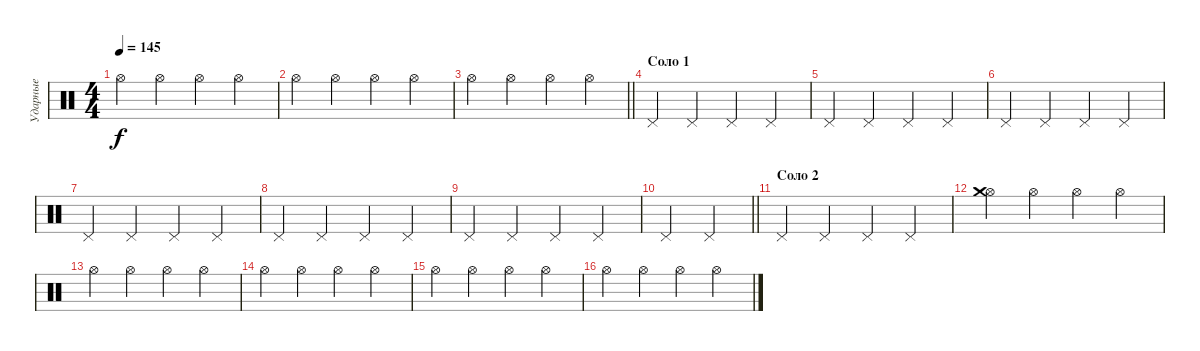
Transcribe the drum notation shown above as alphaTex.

\track ("Ударные" "Ударные") {instrument percussion}
\staff {score}
\articulation defaults
\ts (4 4)
\tempo 145
\clef neutral
\ks c "Hi-Hat (open)".4{dy f} "Hi-Hat (open)".4 "Hi-Hat (open)".4 "Hi-Hat (open)".4
|
"Hi-Hat (open)".4 "Hi-Hat (open)".4 "Hi-Hat (open)".4 "Hi-Hat (open)".4 |
\barLineRight lightlight "Hi-Hat (open)".4 "Hi-Hat (open)".4 "Hi-Hat (open)".4 "Hi-Hat (open)".4
|
\section ("" "Соло 1")
"Pedal Hi-Hat (hit)".4 "Pedal Hi-Hat (hit)".4 "Pedal Hi-Hat (hit)".4 "Pedal Hi-Hat (hit)".4 |
"Pedal Hi-Hat (hit)".4 "Pedal Hi-Hat (hit)".4 "Pedal Hi-Hat (hit)".4 "Pedal Hi-Hat (hit)".4 |
"Pedal Hi-Hat (hit)".4 "Pedal Hi-Hat (hit)".4 "Pedal Hi-Hat (hit)".4 "Pedal Hi-Hat (hit)".4 |
"Pedal Hi-Hat (hit)".4 "Pedal Hi-Hat (hit)".4 "Pedal Hi-Hat (hit)".4 "Pedal Hi-Hat (hit)".4 |
"Pedal Hi-Hat (hit)".4 "Pedal Hi-Hat (hit)".4 "Pedal Hi-Hat (hit)".4 "Pedal Hi-Hat (hit)".4 |
"Pedal Hi-Hat (hit)".4 "Pedal Hi-Hat (hit)".4 "Pedal Hi-Hat (hit)".4 "Pedal Hi-Hat (hit)".4 |
\barLineRight lightlight "Pedal Hi-Hat (hit)".4 "Pedal Hi-Hat (hit)".4
|
\section ("" "Соло 2")
"Pedal Hi-Hat (hit)".4 "Pedal Hi-Hat (hit)".4 "Pedal Hi-Hat (hit)".4 "Pedal Hi-Hat (hit)".4 |
("Hi-Hat (open)" "Crash medium (hit)").4 "Hi-Hat (open)".4 "Hi-Hat (open)".4 "Hi-Hat (open)".4 |
"Hi-Hat (open)".4 "Hi-Hat (open)".4 "Hi-Hat (open)".4 "Hi-Hat (open)".4 |
"Hi-Hat (open)".4 "Hi-Hat (open)".4 "Hi-Hat (open)".4 "Hi-Hat (open)".4 |
"Hi-Hat (open)".4 "Hi-Hat (open)".4 "Hi-Hat (open)".4 "Hi-Hat (open)".4 |
"Hi-Hat (open)".4 "Hi-Hat (open)".4 "Hi-Hat (open)".4 "Hi-Hat (open)".4
